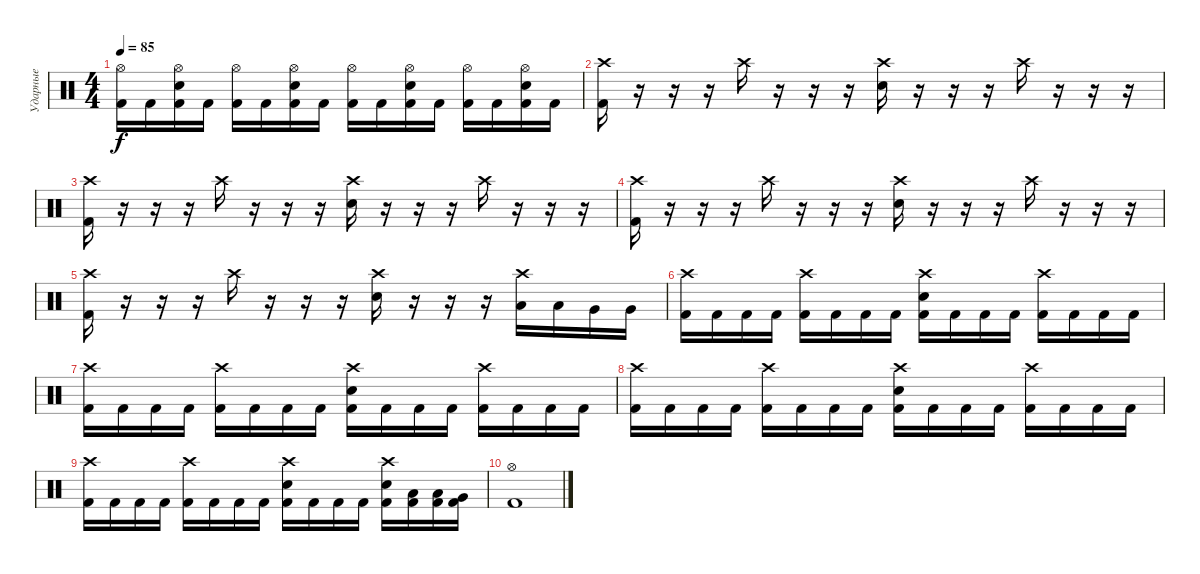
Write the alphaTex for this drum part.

\track ("Ударные" "Ударные") {instrument percussion}
\staff {score}
\articulation defaults
\ts (4 4)
\tempo 85
\clef neutral
\ks c
("Hi-Hat (open)" "Kick (hit) 2").16{dy f} "Kick (hit) 2".16 ("Hi-Hat (open)" "Electric Snare (hit)" "Kick (hit) 2").16 "Kick (hit) 2".16 ("Hi-Hat (open)" "Kick (hit) 2").16 "Kick (hit) 2".16 ("Hi-Hat (open)" "Electric Snare (hit)" "Kick (hit) 2").16 "Kick (hit) 2".16 ("Hi-Hat (open)" "Kick (hit) 2").16 "Kick (hit) 2".16 ("Hi-Hat (open)" "Electric Snare (hit)" "Kick (hit) 2").16 "Kick (hit) 2".16 ("Hi-Hat (open)" "Kick (hit) 2").16 "Kick (hit) 2".16 ("Hi-Hat (open)" "Electric Snare (hit)" "Kick (hit) 2").16 "Kick (hit) 2".16 |
("Crash high (hit)" "Kick (hit) 2").16 r.16 r.16 r.16 "Crash high (hit)".16 r.16 r.16 r.16 ("Crash high (hit)" "Electric Snare (hit)").16 r.16 r.16 r.16 "Crash high (hit)".16 r.16 r.16 r.16 |
("Crash high (hit)" "Kick (hit) 2").16 r.16 r.16 r.16 "Crash high (hit)".16 r.16 r.16 r.16 ("Crash high (hit)" "Electric Snare (hit)").16 r.16 r.16 r.16 "Crash high (hit)".16 r.16 r.16 r.16 |
("Crash high (hit)" "Kick (hit) 2").16 r.16 r.16 r.16 "Crash high (hit)".16 r.16 r.16 r.16 ("Crash high (hit)" "Electric Snare (hit)").16 r.16 r.16 r.16 "Crash high (hit)".16 r.16 r.16 r.16 |
("Crash high (hit)" "Kick (hit) 2").16 r.16 r.16 r.16 "Crash high (hit)".16 r.16 r.16 r.16 ("Crash high (hit)" "Electric Snare (hit)").16 r.16 r.16 r.16 ("Crash high (hit)" "Low Tom (hit)").16 "Low Tom (hit)".16 "Very Low Tom (hit)".16 "Very Low Tom (hit)".16 |
("Crash high (hit)" "Kick (hit) 2").16 "Kick (hit) 2".16 "Kick (hit) 2".16 "Kick (hit) 2".16 ("Crash high (hit)" "Kick (hit) 2").16 "Kick (hit) 2".16 "Kick (hit) 2".16 "Kick (hit) 2".16 ("Crash high (hit)" "Electric Snare (hit)" "Kick (hit) 2").16 "Kick (hit) 2".16 "Kick (hit) 2".16 "Kick (hit) 2".16 ("Crash high (hit)" "Kick (hit) 2").16 "Kick (hit) 2".16 "Kick (hit) 2".16 "Kick (hit) 2".16 |
("Crash high (hit)" "Kick (hit) 2").16 "Kick (hit) 2".16 "Kick (hit) 2".16 "Kick (hit) 2".16 ("Crash high (hit)" "Kick (hit) 2").16 "Kick (hit) 2".16 "Kick (hit) 2".16 "Kick (hit) 2".16 ("Crash high (hit)" "Electric Snare (hit)" "Kick (hit) 2").16 "Kick (hit) 2".16 "Kick (hit) 2".16 "Kick (hit) 2".16 ("Crash high (hit)" "Kick (hit) 2").16 "Kick (hit) 2".16 "Kick (hit) 2".16 "Kick (hit) 2".16 |
("Crash high (hit)" "Kick (hit) 2").16 "Kick (hit) 2".16 "Kick (hit) 2".16 "Kick (hit) 2".16 ("Crash high (hit)" "Kick (hit) 2").16 "Kick (hit) 2".16 "Kick (hit) 2".16 "Kick (hit) 2".16 ("Crash high (hit)" "Electric Snare (hit)" "Kick (hit) 2").16 "Kick (hit) 2".16 "Kick (hit) 2".16 "Kick (hit) 2".16 ("Crash high (hit)" "Kick (hit) 2").16 "Kick (hit) 2".16 "Kick (hit) 2".16 "Kick (hit) 2".16 |
("Crash high (hit)" "Kick (hit) 2").16 "Kick (hit) 2".16 "Kick (hit) 2".16 "Kick (hit) 2".16 ("Crash high (hit)" "Kick (hit) 2").16 "Kick (hit) 2".16 "Kick (hit) 2".16 "Kick (hit) 2".16 ("Crash high (hit)" "Electric Snare (hit)" "Kick (hit) 2").16 "Kick (hit) 2".16 "Kick (hit) 2".16 "Kick (hit) 2".16 ("Crash high (hit)" "Electric Snare (hit)" "Kick (hit) 2").16 ("Low Tom (hit)" "Kick (hit) 2").16 ("Low Tom (hit)" "Kick (hit) 2").16 ("Very Low Tom (hit)" "Kick (hit) 2").16 |
("Hi-Hat (open)" "Kick (hit) 2").1
